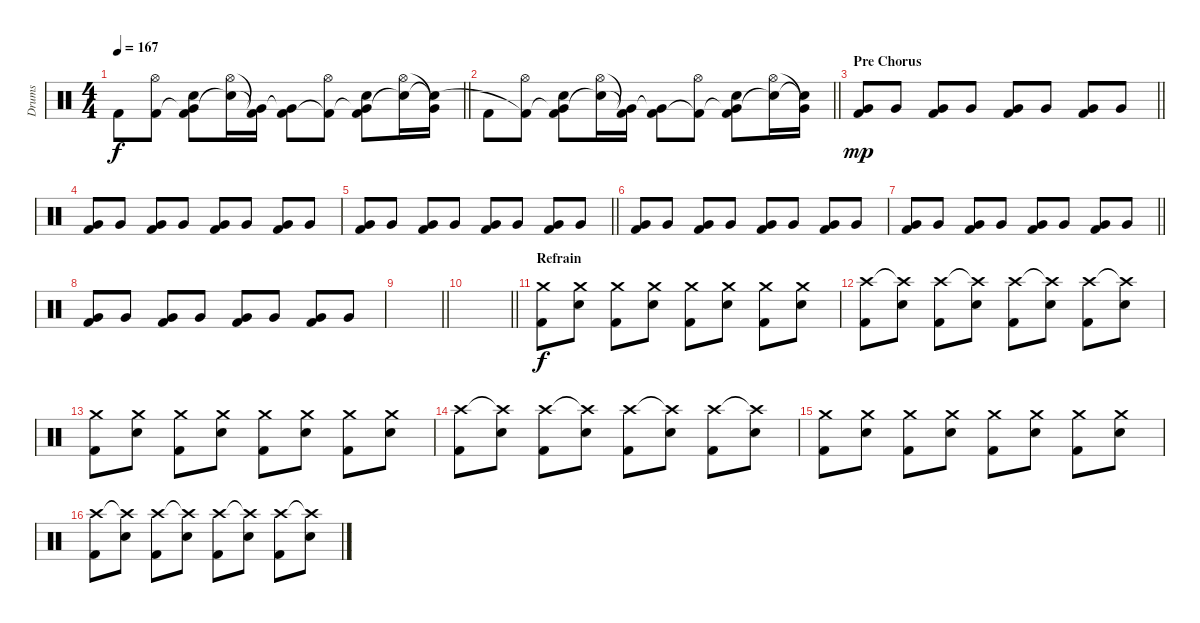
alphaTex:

\track ("Drums" "Drums") {instrument percussion}
\staff {score}
\articulation defaults
\ts (4 4)
\tempo 167
\clef neutral
\barLineRight lightlight
\ks c "Kick (hit) 2".8{dy f}
("Hi-Hat (open)" "Kick (hit) 2"{t}).8 ("Snare (hit) 2" "Very Low Tom (hit)"{t} "Kick (hit) 2").8 ("Hi-Hat (open)" "Snare (hit)"{t}).16 ("Very Low Tom (hit)"{t} "Kick (hit) 2"{t}).16 ("Very Low Tom (hit)"{t} "Kick (hit) 2").8 ("Hi-Hat (open)" "Kick (hit) 2"{t}).8 ("Snare (hit) 2" "Very Low Tom (hit)"{t} "Kick (hit) 2").8 ("Hi-Hat (open)" "Snare (hit)"{t}).16 ("Very Low Tom (hit)"{t} "Snare (hit)"{t}).16 |
\barLineRight lightlight "Kick (hit) 2".8
("Hi-Hat (open)" "Kick (hit) 2"{t}).8 ("Snare (hit) 2" "Very Low Tom (hit)"{t} "Kick (hit) 2").8 ("Hi-Hat (open)" "Snare (hit)"{t}).16 ("Very Low Tom (hit)"{t} "Kick (hit) 2"{t}).16 ("Very Low Tom (hit)"{t} "Kick (hit) 2").8 ("Hi-Hat (open)" "Kick (hit) 2"{t}).8 ("Snare (hit) 2" "Very Low Tom (hit)"{t} "Kick (hit) 2").8 ("Hi-Hat (open)" "Snare (hit)"{t}).16 ("Very Low Tom (hit)"{t} "Snare (hit)"{t}).16 |
\section ("" "Pre Chorus")
\barLineRight lightlight
("Very Low Tom (hit)" "Kick (hit) 2").8{dy mp} "Very Low Tom (hit)".8 ("Very Low Tom (hit)" "Kick (hit) 2").8 "Very Low Tom (hit)".8 ("Very Low Tom (hit)" "Kick (hit) 2").8 "Very Low Tom (hit)".8 ("Very Low Tom (hit)" "Kick (hit) 2").8 "Very Low Tom (hit)".8 |
("Very Low Tom (hit)" "Kick (hit) 2").8 "Very Low Tom (hit)".8 ("Very Low Tom (hit)" "Kick (hit) 2").8 "Very Low Tom (hit)".8 ("Very Low Tom (hit)" "Kick (hit) 2").8 "Very Low Tom (hit)".8 ("Very Low Tom (hit)" "Kick (hit) 2").8 "Very Low Tom (hit)".8 |
\barLineRight lightlight
("Very Low Tom (hit)" "Kick (hit) 2").8 "Very Low Tom (hit)".8 ("Very Low Tom (hit)" "Kick (hit) 2").8 "Very Low Tom (hit)".8 ("Very Low Tom (hit)" "Kick (hit) 2").8 "Very Low Tom (hit)".8 ("Very Low Tom (hit)" "Kick (hit) 2").8 "Very Low Tom (hit)".8 |
("Very Low Tom (hit)" "Kick (hit) 2").8 "Very Low Tom (hit)".8 ("Very Low Tom (hit)" "Kick (hit) 2").8 "Very Low Tom (hit)".8 ("Very Low Tom (hit)" "Kick (hit) 2").8 "Very Low Tom (hit)".8 ("Very Low Tom (hit)" "Kick (hit) 2").8 "Very Low Tom (hit)".8 |
\barLineRight lightlight
("Very Low Tom (hit)" "Kick (hit) 2").8 "Very Low Tom (hit)".8 ("Very Low Tom (hit)" "Kick (hit) 2").8 "Very Low Tom (hit)".8 ("Very Low Tom (hit)" "Kick (hit) 2").8 "Very Low Tom (hit)".8 ("Very Low Tom (hit)" "Kick (hit) 2").8 "Very Low Tom (hit)".8 |
("Very Low Tom (hit)" "Kick (hit) 2").8 "Very Low Tom (hit)".8 ("Very Low Tom (hit)" "Kick (hit) 2").8 "Very Low Tom (hit)".8 ("Very Low Tom (hit)" "Kick (hit) 2").8 "Very Low Tom (hit)".8 ("Very Low Tom (hit)" "Kick (hit) 2").8 "Very Low Tom (hit)".8 |
\barLineRight lightlight
|
\barLineRight lightlight
|
\section ("" "Refrain")
("Crash medium (hit)" "Kick (hit) 2").8{dy f} ("Crash medium (hit)" "Snare (hit) 2").8 ("Crash medium (hit)" "Kick (hit) 2").8 ("Crash medium (hit)" "Snare (hit) 2").8 ("Crash medium (hit)" "Kick (hit) 2").8 ("Crash medium (hit)" "Snare (hit) 2").8 ("Crash medium (hit)" "Kick (hit) 2").8 ("Crash medium (hit)" "Snare (hit) 2").8 |
("Crash high (hit)" "Kick (hit) 2").8 ("Crash high (hit)"{t} "Snare (hit) 2").8 ("Crash high (hit)" "Kick (hit) 2").8 ("Crash high (hit)"{t} "Snare (hit) 2").8 ("Crash high (hit)" "Kick (hit) 2").8 ("Crash high (hit)"{t} "Snare (hit) 2").8 ("Crash high (hit)" "Kick (hit) 2").8 ("Crash high (hit)"{t} "Snare (hit) 2").8 |
("Crash medium (hit)" "Kick (hit) 2").8 ("Crash medium (hit)" "Snare (hit) 2").8 ("Crash medium (hit)" "Kick (hit) 2").8 ("Crash medium (hit)" "Snare (hit) 2").8 ("Crash medium (hit)" "Kick (hit) 2").8 ("Crash medium (hit)" "Snare (hit) 2").8 ("Crash medium (hit)" "Kick (hit) 2").8 ("Crash medium (hit)" "Snare (hit) 2").8 |
("Crash high (hit)" "Kick (hit) 2").8 ("Crash high (hit)"{t} "Snare (hit) 2").8 ("Crash high (hit)" "Kick (hit) 2").8 ("Crash high (hit)"{t} "Snare (hit) 2").8 ("Crash high (hit)" "Kick (hit) 2").8 ("Crash high (hit)"{t} "Snare (hit) 2").8 ("Crash high (hit)" "Kick (hit) 2").8 ("Crash high (hit)"{t} "Snare (hit) 2").8 |
("Crash medium (hit)" "Kick (hit) 2").8 ("Crash medium (hit)" "Snare (hit) 2").8 ("Crash medium (hit)" "Kick (hit) 2").8 ("Crash medium (hit)" "Snare (hit) 2").8 ("Crash medium (hit)" "Kick (hit) 2").8 ("Crash medium (hit)" "Snare (hit) 2").8 ("Crash medium (hit)" "Kick (hit) 2").8 ("Crash medium (hit)" "Snare (hit) 2").8 |
("Crash high (hit)" "Kick (hit) 2").8 ("Crash high (hit)"{t} "Snare (hit) 2").8 ("Crash high (hit)" "Kick (hit) 2").8 ("Crash high (hit)"{t} "Snare (hit) 2").8 ("Crash high (hit)" "Kick (hit) 2").8 ("Crash high (hit)"{t} "Snare (hit) 2").8 ("Crash high (hit)" "Kick (hit) 2").8 ("Crash high (hit)"{t} "Snare (hit) 2").8
